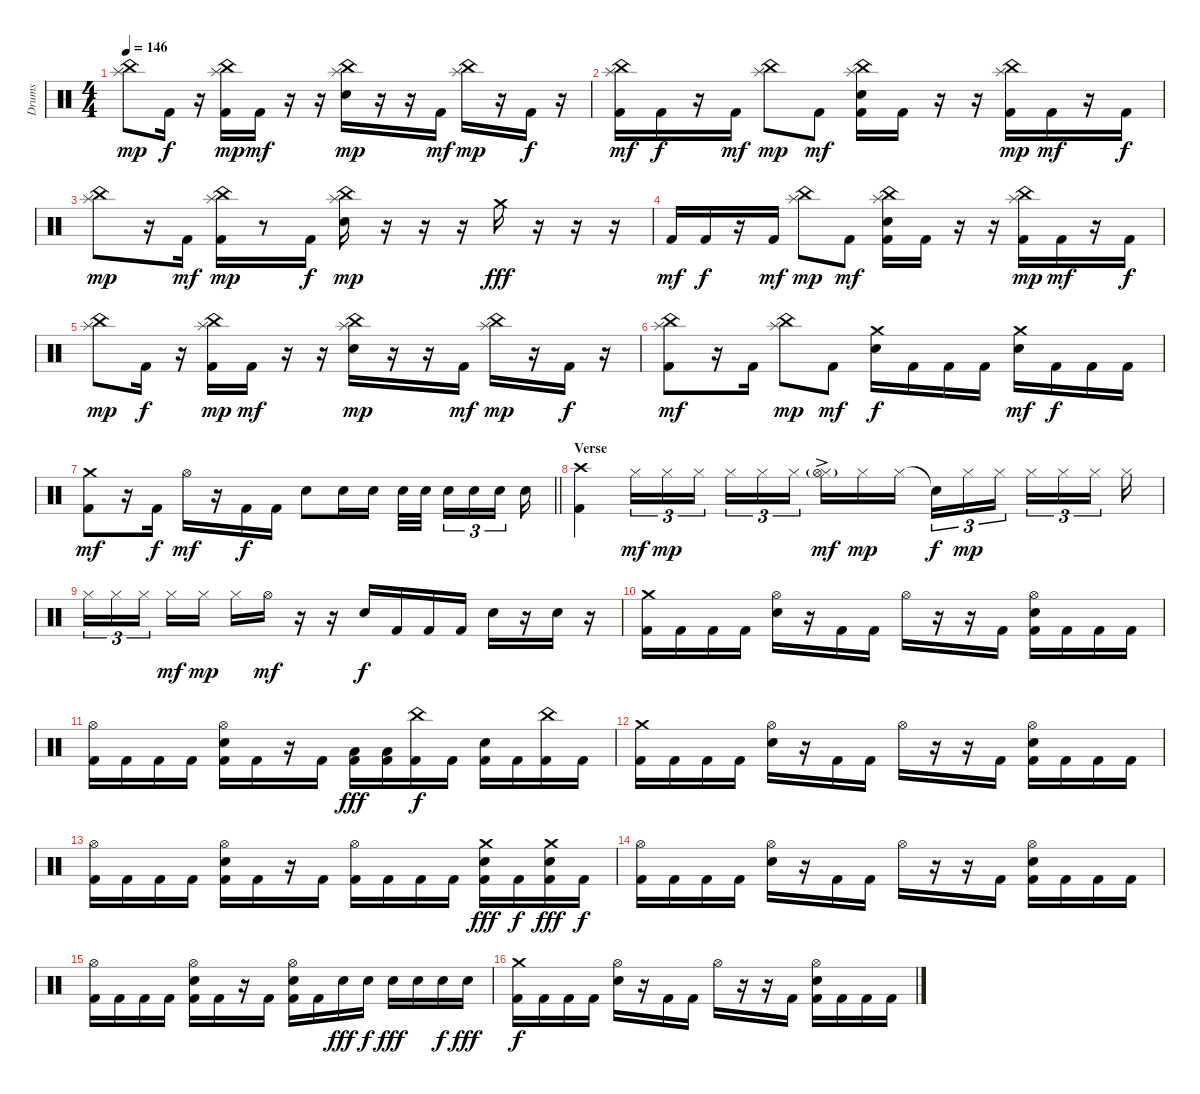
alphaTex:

\track ("Drums" "Drums") {instrument percussion}
\staff {score}
\articulation defaults
\ts (4 4)
\tempo 146
\clef neutral
\ks c
("Splash (hit)" "China (hit)").8{dy mp} "Kick (hit) 2".16{dy f} r.16 ("Splash (hit)" "China (hit)" "Kick (hit) 2").16{dy mp} "Kick (hit) 2".16{dy mf} r.16 r.16 ("Splash (hit)" "China (hit)" "Electric Snare (hit)").16{dy mp} r.16 r.16 "Kick (hit) 2".16{dy mf} ("Splash (hit)" "China (hit)").16{dy mp} r.16 "Kick (hit) 2".16{dy f} r.16 |
("Splash (hit)" "China (hit)" "Kick (hit) 2").16{dy mf} "Kick (hit) 2".16{dy f} r.16 "Kick (hit) 2".16{dy mf} ("Splash (hit)" "China (hit)").8{dy mp} "Kick (hit) 2".8{dy mf} ("Splash (hit)" "China (hit)" "Electric Snare (hit)" "Kick (hit) 2").16 "Kick (hit) 2".16 r.16 r.16 ("Splash (hit)" "China (hit)" "Kick (hit) 2").16{dy mp} "Kick (hit) 2".16{dy mf} r.16 "Kick (hit) 2".16{dy f} |
("Splash (hit)" "China (hit)").8{dy mp} r.16 "Kick (hit) 2".16{dy mf} ("Splash (hit)" "China (hit)" "Kick (hit) 2").16{dy mp} r.8 "Kick (hit) 2".16{dy f} ("Splash (hit)" "China (hit)" "Electric Snare (hit)").16{dy mp} r.16 r.16 r.16{volume 0} "Crash medium (hit)".16{dy fff volume 14} r.16 r.16 r.16 |
"Kick (hit) 2".16{dy mf} "Kick (hit) 2".16{dy f} r.16 "Kick (hit) 2".16{dy mf} ("Splash (hit)" "China (hit)").8{dy mp} "Kick (hit) 2".8{dy mf} ("Splash (hit)" "China (hit)" "Electric Snare (hit)" "Kick (hit) 2").16 "Kick (hit) 2".16 r.16 r.16 ("Splash (hit)" "China (hit)" "Kick (hit) 2").16{dy mp} "Kick (hit) 2".16{dy mf} r.16 "Kick (hit) 2".16{dy f} |
("Splash (hit)" "China (hit)").8{dy mp} "Kick (hit) 2".16{dy f} r.16 ("Splash (hit)" "China (hit)" "Kick (hit) 2").16{dy mp} "Kick (hit) 2".16{dy mf} r.16 r.16 ("Splash (hit)" "China (hit)" "Electric Snare (hit)").16{dy mp} r.16 r.16 "Kick (hit) 2".16{dy mf} ("Splash (hit)" "China (hit)").16{dy mp} r.16 "Kick (hit) 2".16{dy f} r.16 |
("Splash (hit)" "China (hit)" "Kick (hit) 2").8{dy mf} r.16 "Kick (hit) 2".16 ("Splash (hit)" "China (hit)").8{dy mp} "Kick (hit) 2".8{dy mf} ("Crash medium (hit)" "Electric Snare (hit)").16{dy f} "Kick (hit) 2".16 "Kick (hit) 2".16 "Kick (hit) 2".16 ("Crash medium (hit)" "Electric Snare (hit)").16{dy mf} "Kick (hit) 2".16{dy f} "Kick (hit) 2".16 "Kick (hit) 2".16 |
\barLineRight lightlight
("Crash medium (hit)" "Kick (hit) 2").8{dy mf} r.16 "Kick (hit) 2".16{dy f} "Hi-Hat (open)".16{dy mf} r.16 "Kick (hit) 2".16{dy f} "Kick (hit) 2".16 "Electric Snare (hit)".8 "Electric Snare (hit)".16 "Electric Snare (hit)".16 "Electric Snare (hit)".32 "Electric Snare (hit)".32{beam splitsecondary} "Electric Snare (hit)".16{tu (3 2)} "Electric Snare (hit)".16{tu (3 2)} "Electric Snare (hit)".16{tu (3 2) beam splitsecondary} "Electric Snare (hit)".16 |
\section ("" "Verse")
("Crash high (hit)" "Kick (hit) 2").4 "Hi-Hat (closed)".16{tu (3 2) dy mf} "Hi-Hat (closed)".16{tu (3 2) dy mp} "Hi-Hat (closed)".16{tu (3 2) beam splitsecondary} "Hi-Hat (closed)".16{tu (3 2)} "Hi-Hat (closed)".16{tu (3 2)} "Hi-Hat (closed)".16{tu (3 2)} ("Hi-Hat (closed)"{ac} "Hi-Hat (open)"{g}).16{dy mf} "Hi-Hat (closed)".16{dy mp} "Hi-Hat (closed)".16{beam splitsecondary} "Snare (hit)"{t}.16{tu (3 2) dy f} "Hi-Hat (closed)".16{tu (3 2) dy mp} "Hi-Hat (closed)".16{tu (3 2) beam splitsecondary} "Hi-Hat (closed)".16{tu (3 2)} "Hi-Hat (closed)".16{tu (3 2)} "Hi-Hat (closed)".16{tu (3 2) beam splitsecondary} "Hi-Hat (closed)".16 |
"Hi-Hat (closed)".16{tu (3 2)} "Hi-Hat (closed)".16{tu (3 2)} "Hi-Hat (closed)".16{tu (3 2) beam splitsecondary} "Hi-Hat (closed)".16{dy mf} "Hi-Hat (closed)".16{dy mp} "Hi-Hat (closed)".16 "Hi-Hat (open)".16{dy mf} r.16 r.16 "Electric Snare (hit)".16{dy f} "Kick (hit) 2".16 "Kick (hit) 2".16 "Kick (hit) 2".16 "Electric Snare (hit)".16 r.16 "Electric Snare (hit)".16 r.16 |
("Crash medium (hit)" "Kick (hit) 2").16 "Kick (hit) 2".16 "Kick (hit) 2".16 "Kick (hit) 2".16 ("Hi-Hat (open)" "Electric Snare (hit)").16 r.16 "Kick (hit) 2".16 "Kick (hit) 2".16 "Hi-Hat (open)".16 r.16 r.16 "Kick (hit) 2".16 ("Hi-Hat (open)" "Electric Snare (hit)" "Kick (hit) 2").16 "Kick (hit) 2".16 "Kick (hit) 2".16 "Kick (hit) 2".16 |
("Hi-Hat (open)" "Kick (hit) 2").16 "Kick (hit) 2".16 "Kick (hit) 2".16 "Kick (hit) 2".16 ("Hi-Hat (open)" "Electric Snare (hit)" "Kick (hit) 2").16 "Kick (hit) 2".16 r.16 "Kick (hit) 2".16 ("Low Tom (hit)" "Kick (hit) 2").16{dy fff} ("Low Tom (hit)" "Kick (hit) 2").16 ("China (hit)" "Kick (hit) 2").16{dy f} "Kick (hit) 2".16 ("Electric Snare (hit)" "Kick (hit) 2").16 "Kick (hit) 2".16 ("China (hit)" "Kick (hit) 2").16 "Kick (hit) 2".16 |
("Crash medium (hit)" "Kick (hit) 2").16 "Kick (hit) 2".16 "Kick (hit) 2".16 "Kick (hit) 2".16 ("Hi-Hat (open)" "Electric Snare (hit)").16 r.16 "Kick (hit) 2".16 "Kick (hit) 2".16 "Hi-Hat (open)".16 r.16 r.16 "Kick (hit) 2".16 ("Hi-Hat (open)" "Electric Snare (hit)" "Kick (hit) 2").16 "Kick (hit) 2".16 "Kick (hit) 2".16 "Kick (hit) 2".16 |
("Hi-Hat (open)" "Kick (hit) 2").16 "Kick (hit) 2".16 "Kick (hit) 2".16 "Kick (hit) 2".16 ("Hi-Hat (open)" "Electric Snare (hit)" "Kick (hit) 2").16 "Kick (hit) 2".16 r.16 "Kick (hit) 2".16 ("Hi-Hat (open)" "Kick (hit) 2").16 "Kick (hit) 2".16 "Kick (hit) 2".16 "Kick (hit) 2".16 ("Crash medium (hit)" "Electric Snare (hit)" "Kick (hit) 2").16{dy fff} "Kick (hit) 2".16{dy f} ("Crash medium (hit)" "Electric Snare (hit)" "Kick (hit) 2").16{dy fff} "Kick (hit) 2".16{dy f} |
("Hi-Hat (open)" "Kick (hit) 2").16 "Kick (hit) 2".16 "Kick (hit) 2".16 "Kick (hit) 2".16 ("Hi-Hat (open)" "Electric Snare (hit)").16 r.16 "Kick (hit) 2".16 "Kick (hit) 2".16 "Hi-Hat (open)".16 r.16 r.16 "Kick (hit) 2".16 ("Hi-Hat (open)" "Electric Snare (hit)" "Kick (hit) 2").16 "Kick (hit) 2".16 "Kick (hit) 2".16 "Kick (hit) 2".16 |
("Hi-Hat (open)" "Kick (hit) 2").16 "Kick (hit) 2".16 "Kick (hit) 2".16 "Kick (hit) 2".16 ("Hi-Hat (open)" "Electric Snare (hit)" "Kick (hit) 2").16 "Kick (hit) 2".16 r.16 "Kick (hit) 2".16 ("Hi-Hat (open)" "Electric Snare (hit)" "Kick (hit) 2").16 "Kick (hit) 2".16 "Electric Snare (hit)".16{dy fff} "Electric Snare (hit)".16{dy f} "Electric Snare (hit)".16{dy fff} "Electric Snare (hit)".16 "Electric Snare (hit)".16{dy f} "Electric Snare (hit)".16{dy fff} |
("Crash medium (hit)" "Kick (hit) 2").16{dy f} "Kick (hit) 2".16 "Kick (hit) 2".16 "Kick (hit) 2".16 ("Hi-Hat (open)" "Electric Snare (hit)").16 r.16 "Kick (hit) 2".16 "Kick (hit) 2".16 "Hi-Hat (open)".16 r.16 r.16 "Kick (hit) 2".16 ("Hi-Hat (open)" "Electric Snare (hit)" "Kick (hit) 2").16 "Kick (hit) 2".16 "Kick (hit) 2".16 "Kick (hit) 2".16
